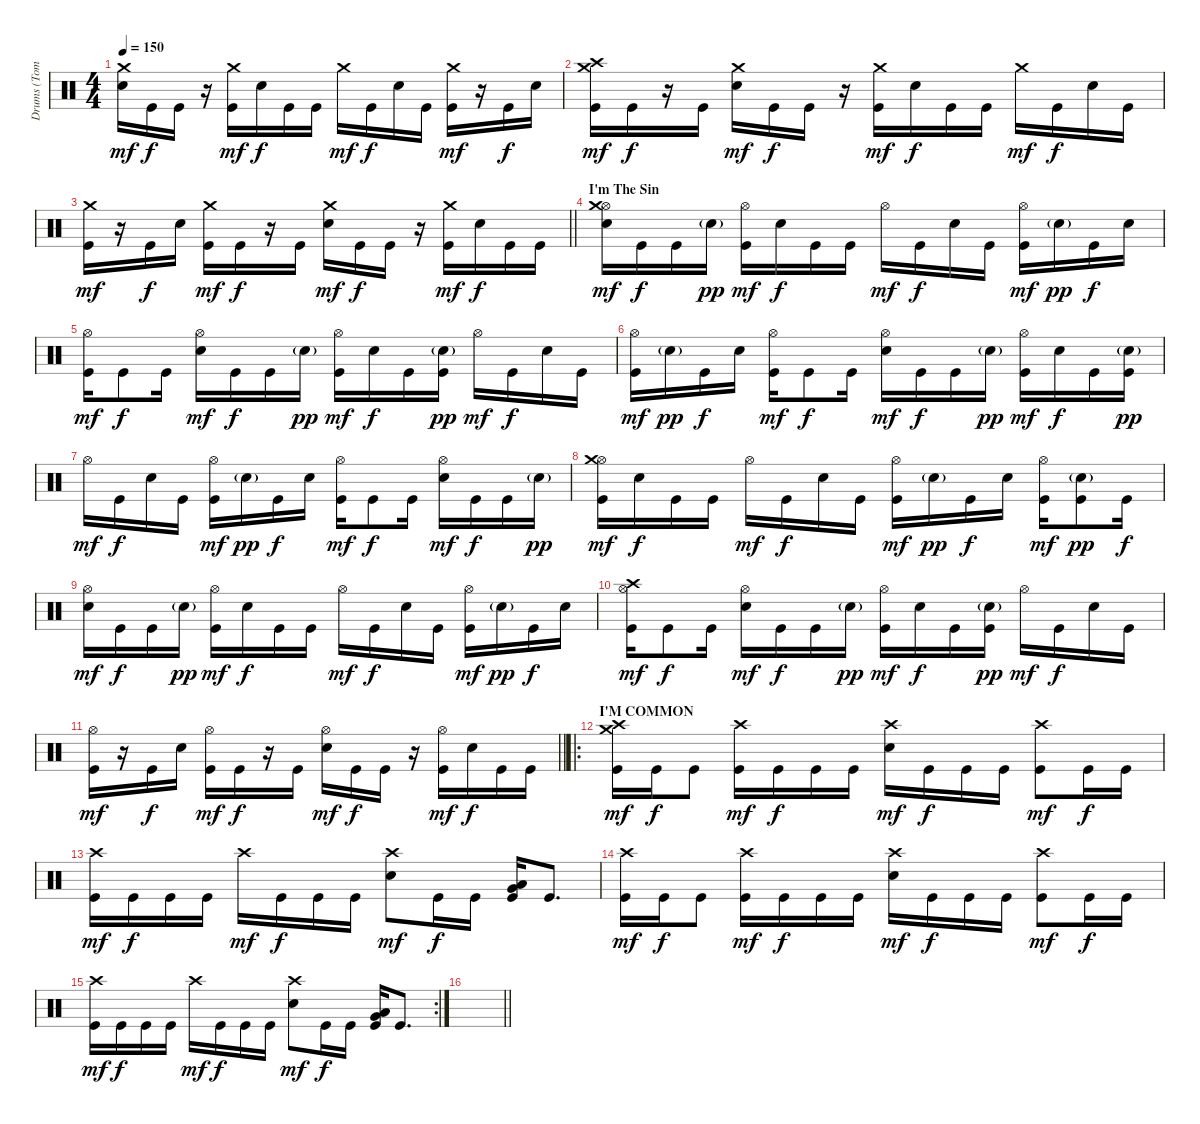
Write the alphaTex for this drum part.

\track ("Drums (Tomas Haake)" "Drums (Tom") {instrument percussion}
\staff {score}
\articulation defaults
\ts (4 4)
\tempo 150
\clef neutral
\ks c
("Crash medium (hit)" "Electric Snare (hit)").16{dy mf} "Kick (hit)".16{dy f} "Kick (hit)".16 r.16 ("Crash medium (hit)" "Kick (hit)").16{dy mf} "Electric Snare (hit)".16{dy f} "Kick (hit)".16 "Kick (hit)".16 "Crash medium (hit)".16{dy mf} "Kick (hit)".16{dy f} "Electric Snare (hit)".16 "Kick (hit)".16 ("Crash medium (hit)" "Kick (hit)").16{dy mf} r.16 "Kick (hit)".16{dy f} "Electric Snare (hit)".16 |
("Crash medium (hit)" "Crash high (hit)" "Kick (hit)").16{dy mf} "Kick (hit)".16{dy f} r.16 "Kick (hit)".16 ("Crash medium (hit)" "Electric Snare (hit)").16{dy mf} "Kick (hit)".16{dy f} "Kick (hit)".16 r.16 ("Crash medium (hit)" "Kick (hit)").16{dy mf} "Electric Snare (hit)".16{dy f} "Kick (hit)".16 "Kick (hit)".16 "Crash medium (hit)".16{dy mf} "Kick (hit)".16{dy f} "Electric Snare (hit)".16 "Kick (hit)".16 |
\barLineRight lightlight
("Crash medium (hit)" "Kick (hit)").16{dy mf} r.16 "Kick (hit)".16{dy f} "Electric Snare (hit)".16 ("Crash medium (hit)" "Kick (hit)").16{dy mf} "Kick (hit)".16{dy f} r.16 "Kick (hit)".16 ("Crash medium (hit)" "Electric Snare (hit)").16{dy mf} "Kick (hit)".16{dy f} "Kick (hit)".16 r.16 ("Crash medium (hit)" "Kick (hit)").16{dy mf} "Electric Snare (hit)".16{dy f} "Kick (hit)".16 "Kick (hit)".16 |
\section ("" "I'm The Sin")
("Hi-Hat (open)" "Crash medium (hit)" "Electric Snare (hit)").16{dy mf} "Kick (hit)".16{dy f} "Kick (hit)".16 "Electric Snare (hit)"{g}.16{dy pp} ("Hi-Hat (open)" "Kick (hit)").16{dy mf} "Electric Snare (hit)".16{dy f} "Kick (hit)".16 "Kick (hit)".16 "Hi-Hat (open)".16{dy mf} "Kick (hit)".16{dy f} "Electric Snare (hit)".16 "Kick (hit)".16 ("Hi-Hat (open)" "Kick (hit)").16{dy mf} "Electric Snare (hit)"{g}.16{dy pp} "Kick (hit)".16{dy f} "Electric Snare (hit)".16 |
("Hi-Hat (open)" "Kick (hit)").16{dy mf} "Kick (hit)".8{dy f} "Kick (hit)".16 ("Hi-Hat (open)" "Electric Snare (hit)").16{dy mf} "Kick (hit)".16{dy f} "Kick (hit)".16 "Electric Snare (hit)"{g}.16{dy pp} ("Hi-Hat (open)" "Kick (hit)").16{dy mf} "Electric Snare (hit)".16{dy f} "Kick (hit)".16 ("Electric Snare (hit)"{g} "Kick (hit)").16{dy pp} "Hi-Hat (open)".16{dy mf} "Kick (hit)".16{dy f} "Electric Snare (hit)".16 "Kick (hit)".16 |
("Hi-Hat (open)" "Kick (hit)").16{dy mf} "Electric Snare (hit)"{g}.16{dy pp} "Kick (hit)".16{dy f} "Electric Snare (hit)".16 ("Hi-Hat (open)" "Kick (hit)").16{dy mf} "Kick (hit)".8{dy f} "Kick (hit)".16 ("Hi-Hat (open)" "Electric Snare (hit)").16{dy mf} "Kick (hit)".16{dy f} "Kick (hit)".16 "Electric Snare (hit)"{g}.16{dy pp} ("Hi-Hat (open)" "Kick (hit)").16{dy mf} "Electric Snare (hit)".16{dy f} "Kick (hit)".16 ("Electric Snare (hit)"{g} "Kick (hit)").16{dy pp} |
"Hi-Hat (open)".16{dy mf} "Kick (hit)".16{dy f} "Electric Snare (hit)".16 "Kick (hit)".16 ("Hi-Hat (open)" "Kick (hit)").16{dy mf} "Electric Snare (hit)"{g}.16{dy pp} "Kick (hit)".16{dy f} "Electric Snare (hit)".16 ("Hi-Hat (open)" "Kick (hit)").16{dy mf} "Kick (hit)".8{dy f} "Kick (hit)".16 ("Hi-Hat (open)" "Electric Snare (hit)").16{dy mf} "Kick (hit)".16{dy f} "Kick (hit)".16 "Electric Snare (hit)"{g}.16{dy pp} |
("Hi-Hat (open)" "Crash medium (hit)" "Kick (hit)").16{dy mf} "Electric Snare (hit)".16{dy f} "Kick (hit)".16 "Kick (hit)".16 "Hi-Hat (open)".16{dy mf} "Kick (hit)".16{dy f} "Electric Snare (hit)".16 "Kick (hit)".16 ("Hi-Hat (open)" "Kick (hit)").16{dy mf} "Electric Snare (hit)"{g}.16{dy pp} "Kick (hit)".16{dy f} "Electric Snare (hit)".16 ("Hi-Hat (open)" "Kick (hit)").16{dy mf} ("Electric Snare (hit)"{g} "Kick (hit)").8{dy pp} "Kick (hit)".16{dy f} |
("Hi-Hat (open)" "Electric Snare (hit)").16{dy mf} "Kick (hit)".16{dy f} "Kick (hit)".16 "Electric Snare (hit)"{g}.16{dy pp} ("Hi-Hat (open)" "Kick (hit)").16{dy mf} "Electric Snare (hit)".16{dy f} "Kick (hit)".16 "Kick (hit)".16 "Hi-Hat (open)".16{dy mf} "Kick (hit)".16{dy f} "Electric Snare (hit)".16 "Kick (hit)".16 ("Hi-Hat (open)" "Kick (hit)").16{dy mf} "Electric Snare (hit)"{g}.16{dy pp} "Kick (hit)".16{dy f} "Electric Snare (hit)".16 |
("Hi-Hat (open)" "Crash high (hit)" "Kick (hit)").16{dy mf} "Kick (hit)".8{dy f} "Kick (hit)".16 ("Hi-Hat (open)" "Electric Snare (hit)").16{dy mf} "Kick (hit)".16{dy f} "Kick (hit)".16 "Electric Snare (hit)"{g}.16{dy pp} ("Hi-Hat (open)" "Kick (hit)").16{dy mf} "Electric Snare (hit)".16{dy f} "Kick (hit)".16 ("Electric Snare (hit)"{g} "Kick (hit)").16{dy pp} "Hi-Hat (open)".16{dy mf} "Kick (hit)".16{dy f} "Electric Snare (hit)".16 "Kick (hit)".16 |
\barLineRight lightlight
("Hi-Hat (open)" "Kick (hit)").16{dy mf} r.16 "Kick (hit)".16{dy f} "Electric Snare (hit)".16 ("Hi-Hat (open)" "Kick (hit)").16{dy mf} "Kick (hit)".16{dy f} r.16 "Kick (hit)".16 ("Hi-Hat (open)" "Electric Snare (hit)").16{dy mf} "Kick (hit)".16{dy f} "Kick (hit)".16 r.16 ("Hi-Hat (open)" "Kick (hit)").16{dy mf} "Electric Snare (hit)".16{dy f} "Kick (hit)".16 "Kick (hit)".16 |
\ro
\section ("" "I'M COMMON")
("Crash high (hit)" "Crash medium (hit)" "Kick (hit)").16{dy mf} "Kick (hit)".16{dy f} "Kick (hit)".8 ("Crash high (hit)" "Kick (hit)").16{dy mf} "Kick (hit)".16{dy f} "Kick (hit)".16 "Kick (hit)".16 ("Crash high (hit)" "Electric Snare (hit)").16{dy mf} "Kick (hit)".16{dy f} "Kick (hit)".16 "Kick (hit)".16 ("Crash high (hit)" "Kick (hit)").8{dy mf} "Kick (hit)".16{dy f} "Kick (hit)".16 |
("Crash high (hit)" "Kick (hit)").16{dy mf} "Kick (hit)".16{dy f} "Kick (hit)".16 "Kick (hit)".16 "Crash high (hit)".16{dy mf} "Kick (hit)".16{dy f} "Kick (hit)".16 "Kick (hit)".16 ("Crash high (hit)" "Electric Snare (hit)").8{dy mf} "Kick (hit)".16{dy f} "Kick (hit)".16 ("Very Low Tom (hit)" "Low Floor Tom (hit)" "Kick (hit)").16 "Kick (hit)".8{d} |
("Crash high (hit)" "Kick (hit)").16{dy mf} "Kick (hit)".16{dy f} "Kick (hit)".8 ("Crash high (hit)" "Kick (hit)").16{dy mf} "Kick (hit)".16{dy f} "Kick (hit)".16 "Kick (hit)".16 ("Crash high (hit)" "Electric Snare (hit)").16{dy mf} "Kick (hit)".16{dy f} "Kick (hit)".16 "Kick (hit)".16 ("Crash high (hit)" "Kick (hit)").8{dy mf} "Kick (hit)".16{dy f} "Kick (hit)".16 |
\rc 2
("Crash high (hit)" "Kick (hit)").16{dy mf} "Kick (hit)".16{dy f} "Kick (hit)".16 "Kick (hit)".16 "Crash high (hit)".16{dy mf} "Kick (hit)".16{dy f} "Kick (hit)".16 "Kick (hit)".16 ("Crash high (hit)" "Electric Snare (hit)").8{dy mf} "Kick (hit)".16{dy f} "Kick (hit)".16 ("Very Low Tom (hit)" "Low Floor Tom (hit)" "Kick (hit)").16 "Kick (hit)".8{d} |
\barLineRight lightlight
